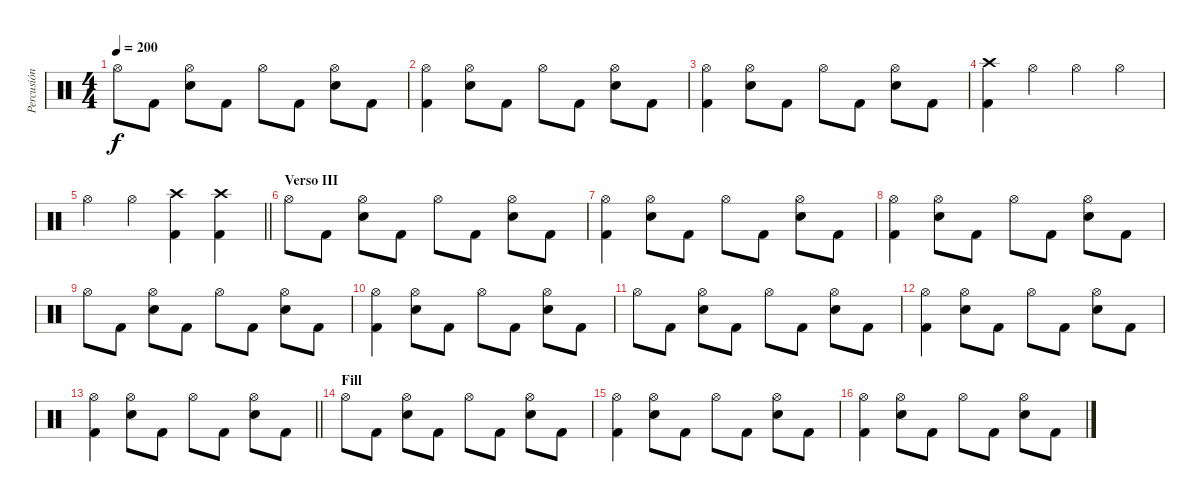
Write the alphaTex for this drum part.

\track ("Percusión" "Percusión") {instrument percussion}
\staff {score}
\articulation defaults
\ts (4 4)
\tempo 200
\clef neutral
\ks c "Hi-Hat (open)".8{dy f} "Kick (hit) 2".8
("Hi-Hat (open)" "Electric Snare (hit)").8 "Kick (hit) 2".8 "Hi-Hat (open)".8 "Kick (hit) 2".8 ("Hi-Hat (open)" "Electric Snare (hit)").8 "Kick (hit) 2".8 |
("Hi-Hat (open)" "Kick (hit) 2").4 ("Hi-Hat (open)" "Electric Snare (hit)").8 "Kick (hit) 2".8 "Hi-Hat (open)".8 "Kick (hit) 2".8 ("Hi-Hat (open)" "Electric Snare (hit)").8 "Kick (hit) 2".8 |
("Hi-Hat (open)" "Kick (hit) 2").4 ("Hi-Hat (open)" "Electric Snare (hit)").8 "Kick (hit) 2".8 "Hi-Hat (open)".8 "Kick (hit) 2".8 ("Hi-Hat (open)" "Electric Snare (hit)").8 "Kick (hit) 2".8 |
("Crash high (hit)" "Kick (hit) 2").4 "Hi-Hat (open)".4 "Hi-Hat (open)".4 "Hi-Hat (open)".4 |
\barLineRight lightlight "Hi-Hat (open)".4 "Hi-Hat (open)".4
("Crash high (hit)" "Kick (hit) 2").4 ("Crash high (hit)" "Kick (hit) 2").4 |
\section ("" "Verso III")
"Hi-Hat (open)".8 "Kick (hit) 2".8 ("Hi-Hat (open)" "Electric Snare (hit)").8 "Kick (hit) 2".8 "Hi-Hat (open)".8 "Kick (hit) 2".8 ("Hi-Hat (open)" "Electric Snare (hit)").8 "Kick (hit) 2".8 |
("Hi-Hat (open)" "Kick (hit) 2").4 ("Hi-Hat (open)" "Electric Snare (hit)").8 "Kick (hit) 2".8 "Hi-Hat (open)".8 "Kick (hit) 2".8 ("Hi-Hat (open)" "Electric Snare (hit)").8 "Kick (hit) 2".8 |
("Hi-Hat (open)" "Kick (hit) 2").4 ("Hi-Hat (open)" "Electric Snare (hit)").8 "Kick (hit) 2".8 "Hi-Hat (open)".8 "Kick (hit) 2".8 ("Hi-Hat (open)" "Electric Snare (hit)").8 "Kick (hit) 2".8 |
"Hi-Hat (open)".8 "Kick (hit) 2".8 ("Hi-Hat (open)" "Electric Snare (hit)").8 "Kick (hit) 2".8 "Hi-Hat (open)".8 "Kick (hit) 2".8 ("Hi-Hat (open)" "Electric Snare (hit)").8 "Kick (hit) 2".8 |
("Hi-Hat (open)" "Kick (hit) 2").4 ("Hi-Hat (open)" "Electric Snare (hit)").8 "Kick (hit) 2".8 "Hi-Hat (open)".8 "Kick (hit) 2".8 ("Hi-Hat (open)" "Electric Snare (hit)").8 "Kick (hit) 2".8 |
"Hi-Hat (open)".8 "Kick (hit) 2".8 ("Hi-Hat (open)" "Electric Snare (hit)").8 "Kick (hit) 2".8 "Hi-Hat (open)".8 "Kick (hit) 2".8 ("Hi-Hat (open)" "Electric Snare (hit)").8 "Kick (hit) 2".8 |
("Hi-Hat (open)" "Kick (hit) 2").4 ("Hi-Hat (open)" "Electric Snare (hit)").8 "Kick (hit) 2".8 "Hi-Hat (open)".8 "Kick (hit) 2".8 ("Hi-Hat (open)" "Electric Snare (hit)").8 "Kick (hit) 2".8 |
\barLineRight lightlight
("Hi-Hat (open)" "Kick (hit) 2").4 ("Hi-Hat (open)" "Electric Snare (hit)").8 "Kick (hit) 2".8 "Hi-Hat (open)".8 "Kick (hit) 2".8 ("Hi-Hat (open)" "Electric Snare (hit)").8 "Kick (hit) 2".8 |
\section ("" "Fill")
"Hi-Hat (open)".8 "Kick (hit) 2".8 ("Hi-Hat (open)" "Electric Snare (hit)").8 "Kick (hit) 2".8 "Hi-Hat (open)".8 "Kick (hit) 2".8 ("Hi-Hat (open)" "Electric Snare (hit)").8 "Kick (hit) 2".8 |
("Hi-Hat (open)" "Kick (hit) 2").4 ("Hi-Hat (open)" "Electric Snare (hit)").8 "Kick (hit) 2".8 "Hi-Hat (open)".8 "Kick (hit) 2".8 ("Hi-Hat (open)" "Electric Snare (hit)").8 "Kick (hit) 2".8 |
("Hi-Hat (open)" "Kick (hit) 2").4 ("Hi-Hat (open)" "Electric Snare (hit)").8 "Kick (hit) 2".8 "Hi-Hat (open)".8 "Kick (hit) 2".8 ("Hi-Hat (open)" "Electric Snare (hit)").8 "Kick (hit) 2".8
